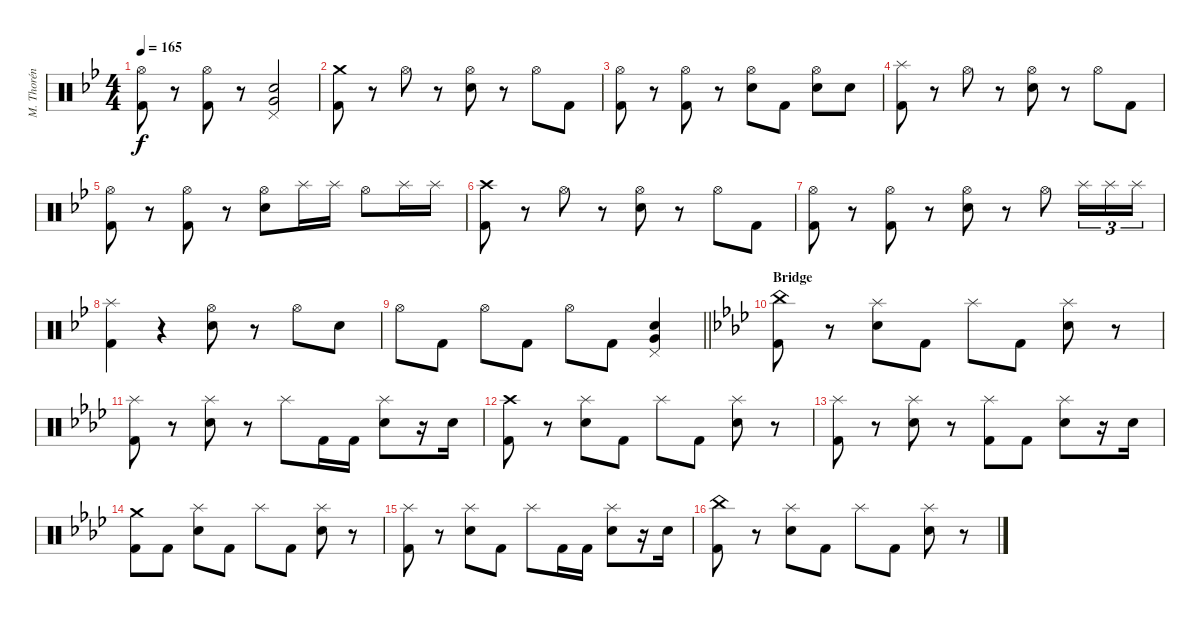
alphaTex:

\track ("M. Thorén (Drums)" "M. Thorén ") {instrument percussion}
\staff {score}
\articulation defaults
\ts (4 4)
\tempo 165
\clef neutral
\ks gminor
("Hi-Hat (open)" "Kick (hit) 2").8{dy f} r.8 ("Hi-Hat (open)" "Kick (hit) 2").8 r.8 ("Pedal Hi-Hat (hit)" "Electric Snare (hit)" "Very Low Tom (hit)").2 |
("Crash medium (hit)" "Kick (hit) 2").8 r.8 "Hi-Hat (open)".8 r.8 ("Hi-Hat (open)" "Electric Snare (hit)").8 r.8 "Hi-Hat (open)".8 "Kick (hit) 2".8 |
("Hi-Hat (open)" "Kick (hit) 2").8 r.8 ("Hi-Hat (open)" "Kick (hit) 2").8 r.8 ("Hi-Hat (open)" "Electric Snare (hit)").8 "Kick (hit) 2".8 ("Hi-Hat (open)" "Electric Snare (hit)").8 "Electric Snare (hit)".8 |
("Splash (hit)" "Kick (hit) 2").8 r.8 "Hi-Hat (open)".8 r.8 ("Hi-Hat (open)" "Electric Snare (hit)").8 r.8 "Hi-Hat (open)".8 "Kick (hit) 2".8 |
("Hi-Hat (open)" "Kick (hit) 2").8 r.8 ("Hi-Hat (open)" "Kick (hit) 2").8 r.8 ("Hi-Hat (open)" "Electric Snare (hit)").8 "Splash (hit)".16 "Splash (hit)".16 "Hi-Hat (open)".8 "Splash (hit)".16 "Splash (hit)".16 |
("Crash high (hit)" "Kick (hit) 2").8 r.8 "Hi-Hat (open)".8 r.8 ("Hi-Hat (open)" "Electric Snare (hit)").8 r.8 "Hi-Hat (open)".8 "Kick (hit) 2".8 |
("Hi-Hat (open)" "Kick (hit) 2").8 r.8 ("Hi-Hat (open)" "Kick (hit) 2").8 r.8 ("Hi-Hat (open)" "Electric Snare (hit)").8 r.8 "Hi-Hat (open)".8 "Splash (hit)".16{tu (3 2)} "Splash (hit)".16{tu (3 2)} "Splash (hit)".16{tu (3 2)} |
("Splash (hit)" "Kick (hit) 2").4 r.4 ("Hi-Hat (open)" "Electric Snare (hit)").8 r.8 "Hi-Hat (open)".8 "Electric Snare (hit)".8 |
\barLineRight lightlight "Hi-Hat (open)".8 "Kick (hit) 2".8 "Hi-Hat (open)".8 "Kick (hit) 2".8 "Hi-Hat (open)".8 "Kick (hit) 2".8
("Pedal Hi-Hat (hit)" "Electric Snare (hit)" "Very Low Tom (hit)").4 |
\section ("" "Bridge")
\ks fminor
("China (hit)" "Kick (hit) 2").8 r.8 ("Splash (hit)" "Electric Snare (hit)").8 "Kick (hit) 2".8 "Splash (hit)".8 "Kick (hit) 2".8 ("Splash (hit)" "Electric Snare (hit)").8 r.8 |
("Splash (hit)" "Kick (hit) 2").8 r.8 ("Splash (hit)" "Electric Snare (hit)").8 r.8 "Splash (hit)".8 "Kick (hit) 2".16 "Kick (hit) 2".16 ("Splash (hit)" "Electric Snare (hit)").8 r.16 "Electric Snare (hit)".16 |
("Crash high (hit)" "Kick (hit) 2").8 r.8 ("Splash (hit)" "Electric Snare (hit)").8 "Kick (hit) 2".8 "Splash (hit)".8 "Kick (hit) 2".8 ("Splash (hit)" "Electric Snare (hit)").8 r.8 |
("Splash (hit)" "Kick (hit) 2").8 r.8 ("Splash (hit)" "Electric Snare (hit)").8 r.8 ("Splash (hit)" "Kick (hit) 2").8 "Kick (hit) 2".8 ("Splash (hit)" "Electric Snare (hit)").8 r.16 "Electric Snare (hit)".16 |
("Crash medium (hit)" "Kick (hit) 2").8 "Kick (hit) 2".8 ("Splash (hit)" "Electric Snare (hit)").8 "Kick (hit) 2".8 "Splash (hit)".8 "Kick (hit) 2".8 ("Splash (hit)" "Electric Snare (hit)").8 r.8 |
("Splash (hit)" "Kick (hit) 2").8 r.8 ("Splash (hit)" "Electric Snare (hit)").8 "Kick (hit) 2".8 "Splash (hit)".8 "Kick (hit) 2".16 "Kick (hit) 2".16 ("Splash (hit)" "Electric Snare (hit)").8 r.16 "Electric Snare (hit)".16 |
("China (hit)" "Kick (hit) 2").8 r.8 ("Splash (hit)" "Electric Snare (hit)").8 "Kick (hit) 2".8 "Splash (hit)".8 "Kick (hit) 2".8 ("Splash (hit)" "Electric Snare (hit)").8 r.8
